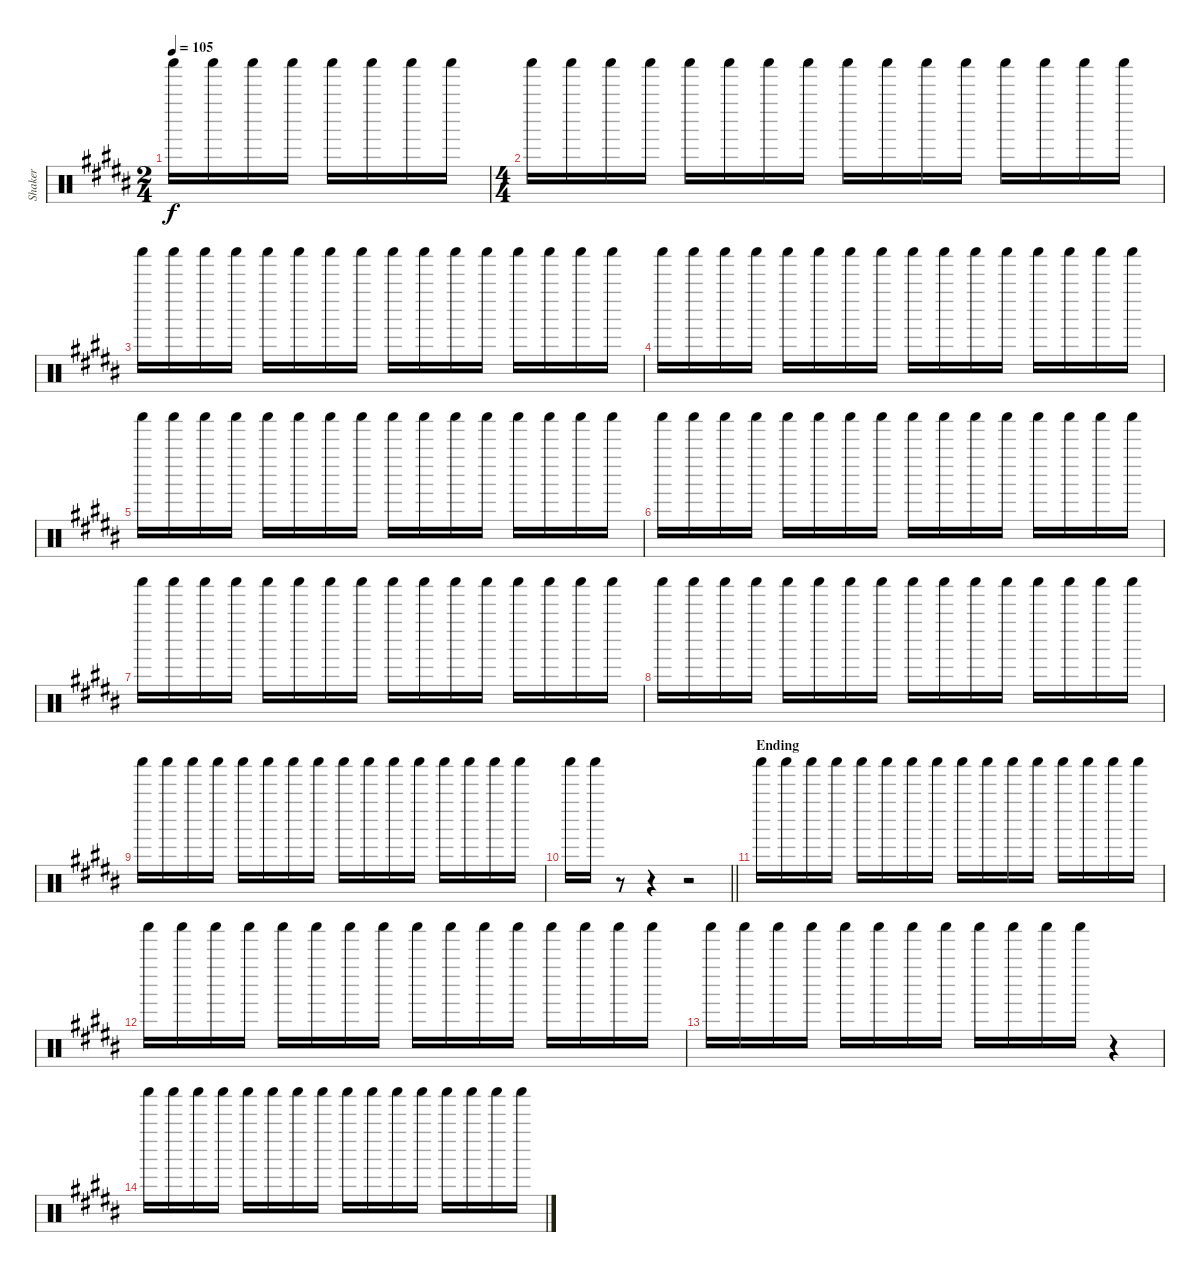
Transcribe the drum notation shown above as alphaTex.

\track ("Shaker" "Shaker") {instrument percussion}
\staff {score}
\articulation defaults
\ts (2 4)
\tempo 105
\clef neutral
\ks g#minor "Shaker (hit)".16{dy f} "Shaker (hit)".16 "Shaker (hit)".16 "Shaker (hit)".16 "Shaker (hit)".16 "Shaker (hit)".16 "Shaker (hit)".16 "Shaker (hit)".16
|
\ts (4 4)
"Shaker (hit)".16 "Shaker (hit)".16 "Shaker (hit)".16 "Shaker (hit)".16 "Shaker (hit)".16 "Shaker (hit)".16 "Shaker (hit)".16 "Shaker (hit)".16 "Shaker (hit)".16 "Shaker (hit)".16 "Shaker (hit)".16 "Shaker (hit)".16 "Shaker (hit)".16 "Shaker (hit)".16 "Shaker (hit)".16 "Shaker (hit)".16 |
"Shaker (hit)".16 "Shaker (hit)".16 "Shaker (hit)".16 "Shaker (hit)".16 "Shaker (hit)".16 "Shaker (hit)".16 "Shaker (hit)".16 "Shaker (hit)".16 "Shaker (hit)".16 "Shaker (hit)".16 "Shaker (hit)".16 "Shaker (hit)".16 "Shaker (hit)".16 "Shaker (hit)".16 "Shaker (hit)".16 "Shaker (hit)".16 |
"Shaker (hit)".16 "Shaker (hit)".16 "Shaker (hit)".16 "Shaker (hit)".16 "Shaker (hit)".16 "Shaker (hit)".16 "Shaker (hit)".16 "Shaker (hit)".16 "Shaker (hit)".16 "Shaker (hit)".16 "Shaker (hit)".16 "Shaker (hit)".16 "Shaker (hit)".16 "Shaker (hit)".16 "Shaker (hit)".16 "Shaker (hit)".16 |
"Shaker (hit)".16 "Shaker (hit)".16 "Shaker (hit)".16 "Shaker (hit)".16 "Shaker (hit)".16 "Shaker (hit)".16 "Shaker (hit)".16 "Shaker (hit)".16 "Shaker (hit)".16 "Shaker (hit)".16 "Shaker (hit)".16 "Shaker (hit)".16 "Shaker (hit)".16 "Shaker (hit)".16 "Shaker (hit)".16 "Shaker (hit)".16 |
"Shaker (hit)".16 "Shaker (hit)".16 "Shaker (hit)".16 "Shaker (hit)".16 "Shaker (hit)".16 "Shaker (hit)".16 "Shaker (hit)".16 "Shaker (hit)".16 "Shaker (hit)".16 "Shaker (hit)".16 "Shaker (hit)".16 "Shaker (hit)".16 "Shaker (hit)".16 "Shaker (hit)".16 "Shaker (hit)".16 "Shaker (hit)".16 |
"Shaker (hit)".16 "Shaker (hit)".16 "Shaker (hit)".16 "Shaker (hit)".16 "Shaker (hit)".16 "Shaker (hit)".16 "Shaker (hit)".16 "Shaker (hit)".16 "Shaker (hit)".16 "Shaker (hit)".16 "Shaker (hit)".16 "Shaker (hit)".16 "Shaker (hit)".16 "Shaker (hit)".16 "Shaker (hit)".16 "Shaker (hit)".16 |
"Shaker (hit)".16 "Shaker (hit)".16 "Shaker (hit)".16 "Shaker (hit)".16 "Shaker (hit)".16 "Shaker (hit)".16 "Shaker (hit)".16 "Shaker (hit)".16 "Shaker (hit)".16 "Shaker (hit)".16 "Shaker (hit)".16 "Shaker (hit)".16 "Shaker (hit)".16 "Shaker (hit)".16 "Shaker (hit)".16 "Shaker (hit)".16 |
"Shaker (hit)".16 "Shaker (hit)".16 "Shaker (hit)".16 "Shaker (hit)".16 "Shaker (hit)".16 "Shaker (hit)".16 "Shaker (hit)".16 "Shaker (hit)".16 "Shaker (hit)".16 "Shaker (hit)".16 "Shaker (hit)".16 "Shaker (hit)".16 "Shaker (hit)".16 "Shaker (hit)".16 "Shaker (hit)".16 "Shaker (hit)".16 |
\barLineRight lightlight "Shaker (hit)".16 "Shaker (hit)".16
r.8 r.4 r.2 |
\section ("" "Ending")
"Shaker (hit)".16 "Shaker (hit)".16 "Shaker (hit)".16 "Shaker (hit)".16 "Shaker (hit)".16 "Shaker (hit)".16 "Shaker (hit)".16 "Shaker (hit)".16 "Shaker (hit)".16 "Shaker (hit)".16 "Shaker (hit)".16 "Shaker (hit)".16 "Shaker (hit)".16 "Shaker (hit)".16 "Shaker (hit)".16 "Shaker (hit)".16 |
"Shaker (hit)".16 "Shaker (hit)".16 "Shaker (hit)".16 "Shaker (hit)".16 "Shaker (hit)".16 "Shaker (hit)".16 "Shaker (hit)".16 "Shaker (hit)".16 "Shaker (hit)".16 "Shaker (hit)".16 "Shaker (hit)".16 "Shaker (hit)".16 "Shaker (hit)".16 "Shaker (hit)".16 "Shaker (hit)".16 "Shaker (hit)".16 |
"Shaker (hit)".16 "Shaker (hit)".16 "Shaker (hit)".16 "Shaker (hit)".16 "Shaker (hit)".16 "Shaker (hit)".16 "Shaker (hit)".16 "Shaker (hit)".16 "Shaker (hit)".16 "Shaker (hit)".16 "Shaker (hit)".16 "Shaker (hit)".16 r.4 |
"Shaker (hit)".16 "Shaker (hit)".16 "Shaker (hit)".16 "Shaker (hit)".16 "Shaker (hit)".16 "Shaker (hit)".16 "Shaker (hit)".16 "Shaker (hit)".16 "Shaker (hit)".16 "Shaker (hit)".16 "Shaker (hit)".16 "Shaker (hit)".16 "Shaker (hit)".16 "Shaker (hit)".16 "Shaker (hit)".16 "Shaker (hit)".16
